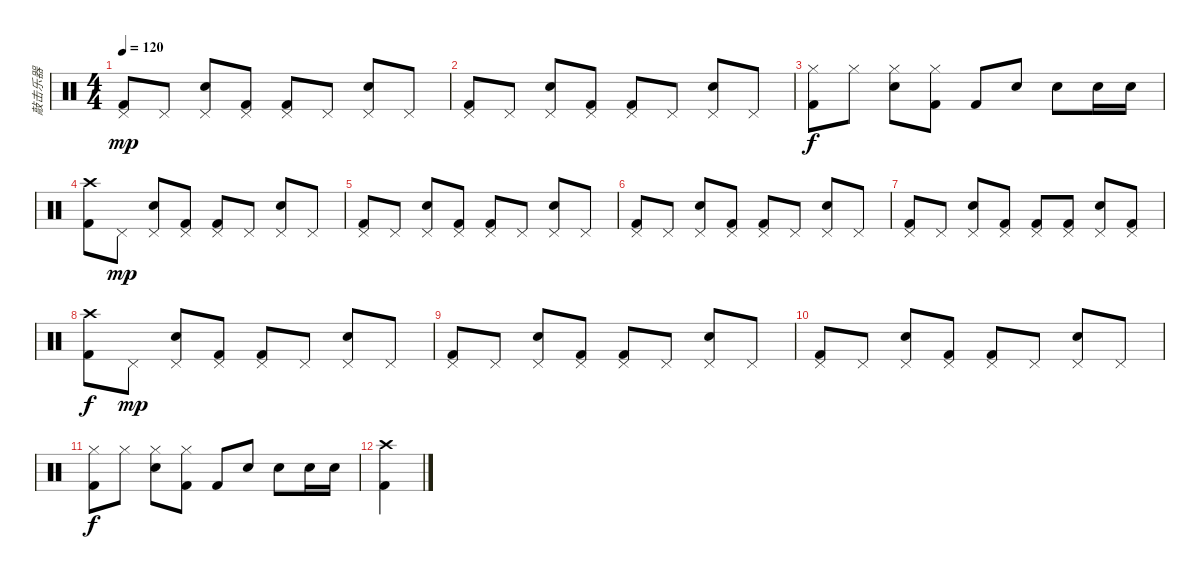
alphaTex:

\track ("敲击乐器" "敲击乐器") {instrument percussion}
\staff {score}
\articulation defaults
\ts (4 4)
\tempo 120
\clef neutral
\ks c
("Pedal Hi-Hat (hit)" "Kick (hit) 2").8{dy mp} "Pedal Hi-Hat (hit)".8 ("Pedal Hi-Hat (hit)" "Electric Snare (hit)").8 ("Pedal Hi-Hat (hit)" "Kick (hit) 2").8 ("Pedal Hi-Hat (hit)" "Kick (hit) 2").8 "Pedal Hi-Hat (hit)".8 ("Pedal Hi-Hat (hit)" "Electric Snare (hit)").8 "Pedal Hi-Hat (hit)".8 |
("Pedal Hi-Hat (hit)" "Kick (hit) 2").8 "Pedal Hi-Hat (hit)".8 ("Pedal Hi-Hat (hit)" "Electric Snare (hit)").8 ("Pedal Hi-Hat (hit)" "Kick (hit) 2").8 ("Pedal Hi-Hat (hit)" "Kick (hit) 2").8 "Pedal Hi-Hat (hit)".8 ("Pedal Hi-Hat (hit)" "Electric Snare (hit)").8 "Pedal Hi-Hat (hit)".8 |
("Hi-Hat (closed)" "Kick (hit) 2").8{dy f} "Hi-Hat (closed)".8 ("Hi-Hat (closed)" "Electric Snare (hit)").8 ("Hi-Hat (closed)" "Kick (hit) 2").8 "Kick (hit) 2".8 "Electric Snare (hit)".8 "Electric Snare (hit)".8 "Electric Snare (hit)".16 "Electric Snare (hit)".16 |
("Crash high (hit)" "Kick (hit) 2").8 "Pedal Hi-Hat (hit)".8{dy mp} ("Pedal Hi-Hat (hit)" "Electric Snare (hit)").8 ("Pedal Hi-Hat (hit)" "Kick (hit) 2").8 ("Pedal Hi-Hat (hit)" "Kick (hit) 2").8 "Pedal Hi-Hat (hit)".8 ("Pedal Hi-Hat (hit)" "Electric Snare (hit)").8 "Pedal Hi-Hat (hit)".8 |
("Pedal Hi-Hat (hit)" "Kick (hit) 2").8 "Pedal Hi-Hat (hit)".8 ("Pedal Hi-Hat (hit)" "Electric Snare (hit)").8 ("Pedal Hi-Hat (hit)" "Kick (hit) 2").8 ("Pedal Hi-Hat (hit)" "Kick (hit) 2").8 "Pedal Hi-Hat (hit)".8 ("Pedal Hi-Hat (hit)" "Electric Snare (hit)").8 "Pedal Hi-Hat (hit)".8 |
("Pedal Hi-Hat (hit)" "Kick (hit) 2").8 "Pedal Hi-Hat (hit)".8 ("Pedal Hi-Hat (hit)" "Electric Snare (hit)").8 ("Pedal Hi-Hat (hit)" "Kick (hit) 2").8 ("Pedal Hi-Hat (hit)" "Kick (hit) 2").8 "Pedal Hi-Hat (hit)".8 ("Pedal Hi-Hat (hit)" "Electric Snare (hit)").8 "Pedal Hi-Hat (hit)".8 |
("Pedal Hi-Hat (hit)" "Kick (hit) 2").8 "Pedal Hi-Hat (hit)".8 ("Pedal Hi-Hat (hit)" "Electric Snare (hit)").8 ("Pedal Hi-Hat (hit)" "Kick (hit) 2").8 ("Pedal Hi-Hat (hit)" "Kick (hit) 2").8 ("Pedal Hi-Hat (hit)" "Kick (hit) 2").8 ("Pedal Hi-Hat (hit)" "Electric Snare (hit)").8 ("Pedal Hi-Hat (hit)" "Kick (hit) 2").8 |
("Crash high (hit)" "Kick (hit) 2").8{dy f} "Pedal Hi-Hat (hit)".8{dy mp} ("Pedal Hi-Hat (hit)" "Electric Snare (hit)").8 ("Pedal Hi-Hat (hit)" "Kick (hit) 2").8 ("Pedal Hi-Hat (hit)" "Kick (hit) 2").8 "Pedal Hi-Hat (hit)".8 ("Pedal Hi-Hat (hit)" "Electric Snare (hit)").8 "Pedal Hi-Hat (hit)".8 |
("Pedal Hi-Hat (hit)" "Kick (hit) 2").8 "Pedal Hi-Hat (hit)".8 ("Pedal Hi-Hat (hit)" "Electric Snare (hit)").8 ("Pedal Hi-Hat (hit)" "Kick (hit) 2").8 ("Pedal Hi-Hat (hit)" "Kick (hit) 2").8 "Pedal Hi-Hat (hit)".8 ("Pedal Hi-Hat (hit)" "Electric Snare (hit)").8 "Pedal Hi-Hat (hit)".8 |
("Pedal Hi-Hat (hit)" "Kick (hit) 2").8 "Pedal Hi-Hat (hit)".8 ("Pedal Hi-Hat (hit)" "Electric Snare (hit)").8 ("Pedal Hi-Hat (hit)" "Kick (hit) 2").8 ("Pedal Hi-Hat (hit)" "Kick (hit) 2").8 "Pedal Hi-Hat (hit)".8 ("Pedal Hi-Hat (hit)" "Electric Snare (hit)").8 "Pedal Hi-Hat (hit)".8 |
("Hi-Hat (closed)" "Kick (hit) 2").8{dy f} "Hi-Hat (closed)".8 ("Hi-Hat (closed)" "Electric Snare (hit)").8 ("Hi-Hat (closed)" "Kick (hit) 2").8 "Kick (hit) 2".8 "Electric Snare (hit)".8 "Electric Snare (hit)".8 "Electric Snare (hit)".16 "Electric Snare (hit)".16 |
("Crash high (hit)" "Kick (hit) 2").4
